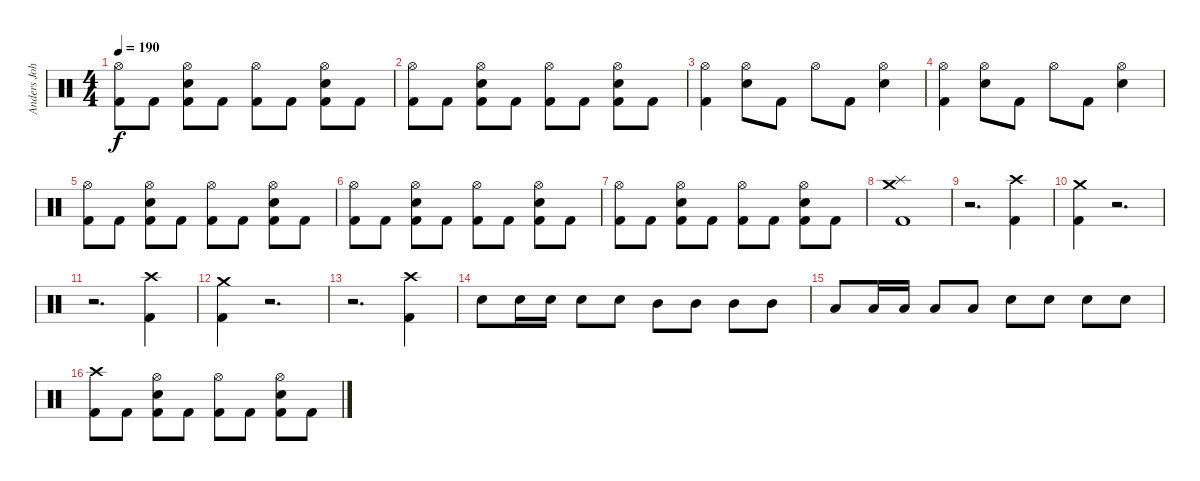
\track ("Anders Johansson Drums" "Anders Joh") {instrument percussion}
\staff {score}
\articulation defaults
\ts (4 4)
\tempo 190
\clef neutral
\ks c
("Hi-Hat (open)" "Kick (hit) 2").8{dy f} "Kick (hit) 2".8 ("Hi-Hat (open)" "Snare (hit) 2" "Kick (hit) 2").8 "Kick (hit) 2".8 ("Hi-Hat (open)" "Kick (hit) 2").8 "Kick (hit) 2".8 ("Hi-Hat (open)" "Snare (hit) 2" "Kick (hit) 2").8 "Kick (hit) 2".8 |
("Hi-Hat (open)" "Kick (hit) 2").8 "Kick (hit) 2".8 ("Hi-Hat (open)" "Snare (hit) 2" "Kick (hit) 2").8 "Kick (hit) 2".8 ("Hi-Hat (open)" "Kick (hit) 2").8 "Kick (hit) 2".8 ("Hi-Hat (open)" "Snare (hit) 2" "Kick (hit) 2").8 "Kick (hit) 2".8 |
("Hi-Hat (open)" "Kick (hit) 2").4 ("Hi-Hat (open)" "Snare (hit) 2").8 "Kick (hit) 2".8 "Hi-Hat (open)".8 "Kick (hit) 2".8 ("Hi-Hat (open)" "Snare (hit) 2").4 |
("Hi-Hat (open)" "Kick (hit) 2").4 ("Hi-Hat (open)" "Snare (hit) 2").8 "Kick (hit) 2".8 "Hi-Hat (open)".8 "Kick (hit) 2".8 ("Hi-Hat (open)" "Snare (hit) 2").4 |
("Hi-Hat (open)" "Kick (hit) 2").8 "Kick (hit) 2".8 ("Hi-Hat (open)" "Snare (hit) 2" "Kick (hit) 2").8 "Kick (hit) 2".8 ("Hi-Hat (open)" "Kick (hit) 2").8 "Kick (hit) 2".8 ("Hi-Hat (open)" "Snare (hit) 2" "Kick (hit) 2").8 "Kick (hit) 2".8 |
("Hi-Hat (open)" "Kick (hit) 2").8 "Kick (hit) 2".8 ("Hi-Hat (open)" "Snare (hit) 2" "Kick (hit) 2").8 "Kick (hit) 2".8 ("Hi-Hat (open)" "Kick (hit) 2").8 "Kick (hit) 2".8 ("Hi-Hat (open)" "Snare (hit) 2" "Kick (hit) 2").8 "Kick (hit) 2".8 |
("Hi-Hat (open)" "Kick (hit) 2").8 "Kick (hit) 2".8 ("Hi-Hat (open)" "Snare (hit) 2" "Kick (hit) 2").8 "Kick (hit) 2".8 ("Hi-Hat (open)" "Kick (hit) 2").8 "Kick (hit) 2".8 ("Hi-Hat (open)" "Snare (hit) 2" "Kick (hit) 2").8 "Kick (hit) 2".8 |
("Splash (hit)" "Crash medium (hit)" "Kick (hit) 2").1 |
r.2{d} ("Crash high (hit)" "Kick (hit) 2").4 |
("Crash medium (hit)" "Kick (hit) 2").4 r.2{d} |
r.2{d} ("Crash high (hit)" "Kick (hit) 2").4 |
("Crash medium (hit)" "Kick (hit) 2").4 r.2{d} |
r.2{d} ("Crash high (hit)" "Kick (hit) 2").4 |
"Snare (hit) 2".8 "Snare (hit) 2".16 "Snare (hit) 2".16 "Snare (hit) 2".8 "Snare (hit) 2".8 "Mid Tom (hit)".8 "Mid Tom (hit)".8 "Mid Tom (hit)".8 "Mid Tom (hit)".8 |
"Low Tom (hit)".8 "Low Tom (hit)".16 "Low Tom (hit)".16 "Low Tom (hit)".8 "Low Tom (hit)".8 "Snare (hit) 2".8 "Snare (hit) 2".8 "Snare (hit) 2".8 "Snare (hit) 2".8 |
("Crash high (hit)" "Kick (hit) 2").8 "Kick (hit) 2".8 ("Hi-Hat (open)" "Snare (hit) 2" "Kick (hit) 2").8 "Kick (hit) 2".8 ("Hi-Hat (open)" "Kick (hit) 2").8 "Kick (hit) 2".8 ("Hi-Hat (open)" "Snare (hit) 2" "Kick (hit) 2").8 "Kick (hit) 2".8
